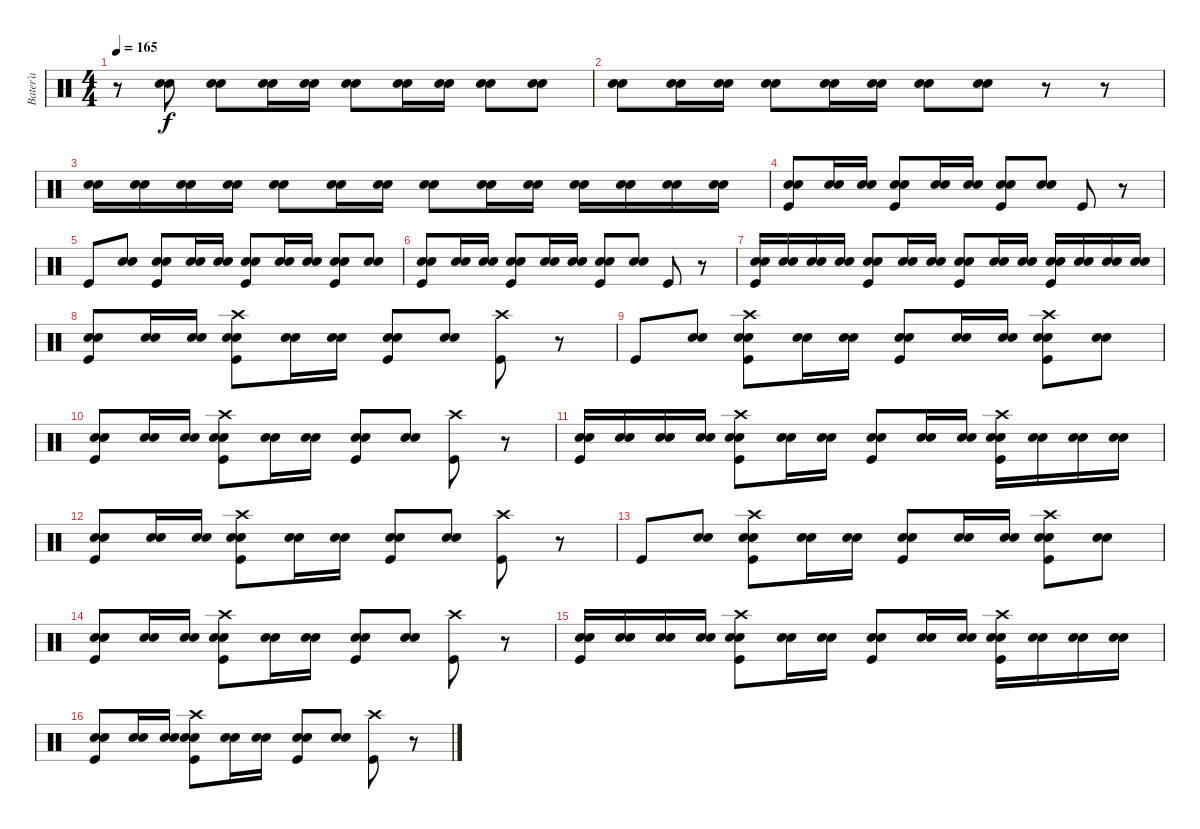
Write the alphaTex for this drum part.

\track ("Bater’a" "Bater’a") {instrument percussion}
\staff {score}
\articulation defaults
\ts (4 4)
\tempo 165
\clef neutral
\ks c
r.8{dy f} ("Snare (hit) 2" "Electric Snare (hit)").8 ("Snare (hit) 2" "Electric Snare (hit)").8 ("Snare (hit) 2" "Electric Snare (hit)").16 ("Snare (hit) 2" "Electric Snare (hit)").16 ("Snare (hit) 2" "Electric Snare (hit)").8 ("Snare (hit) 2" "Electric Snare (hit)").16 ("Snare (hit) 2" "Electric Snare (hit)").16 ("Snare (hit) 2" "Electric Snare (hit)").8 ("Snare (hit) 2" "Electric Snare (hit)").8 |
("Snare (hit) 2" "Electric Snare (hit)").8 ("Snare (hit) 2" "Electric Snare (hit)").16 ("Snare (hit) 2" "Electric Snare (hit)").16 ("Snare (hit) 2" "Electric Snare (hit)").8 ("Snare (hit) 2" "Electric Snare (hit)").16 ("Snare (hit) 2" "Electric Snare (hit)").16 ("Snare (hit) 2" "Electric Snare (hit)").8 ("Snare (hit) 2" "Electric Snare (hit)").8 r.8 r.8 |
("Snare (hit) 2" "Electric Snare (hit)").16 ("Snare (hit) 2" "Electric Snare (hit)").16 ("Snare (hit) 2" "Electric Snare (hit)").16 ("Snare (hit) 2" "Electric Snare (hit)").16 ("Snare (hit) 2" "Electric Snare (hit)").8 ("Snare (hit) 2" "Electric Snare (hit)").16 ("Snare (hit) 2" "Electric Snare (hit)").16 ("Snare (hit) 2" "Electric Snare (hit)").8 ("Snare (hit) 2" "Electric Snare (hit)").16 ("Snare (hit) 2" "Electric Snare (hit)").16 ("Snare (hit) 2" "Electric Snare (hit)").16 ("Snare (hit) 2" "Electric Snare (hit)").16 ("Snare (hit) 2" "Electric Snare (hit)").16 ("Snare (hit) 2" "Electric Snare (hit)").16 |
("Snare (hit) 2" "Electric Snare (hit)" "Kick (hit)").8 ("Snare (hit) 2" "Electric Snare (hit)").16 ("Snare (hit) 2" "Electric Snare (hit)").16 ("Snare (hit) 2" "Electric Snare (hit)" "Kick (hit)").8 ("Snare (hit) 2" "Electric Snare (hit)").16 ("Snare (hit) 2" "Electric Snare (hit)").16 ("Snare (hit) 2" "Electric Snare (hit)" "Kick (hit)").8 ("Snare (hit) 2" "Electric Snare (hit)").8 "Kick (hit)".8 r.8 |
"Kick (hit)".8 ("Snare (hit) 2" "Electric Snare (hit)").8 ("Snare (hit) 2" "Electric Snare (hit)" "Kick (hit)").8 ("Snare (hit) 2" "Electric Snare (hit)").16 ("Snare (hit) 2" "Electric Snare (hit)").16 ("Snare (hit) 2" "Electric Snare (hit)" "Kick (hit)").8 ("Snare (hit) 2" "Electric Snare (hit)").16 ("Snare (hit) 2" "Electric Snare (hit)").16 ("Snare (hit) 2" "Electric Snare (hit)" "Kick (hit)").8 ("Snare (hit) 2" "Electric Snare (hit)").8 |
("Snare (hit) 2" "Electric Snare (hit)" "Kick (hit)").8 ("Snare (hit) 2" "Electric Snare (hit)").16 ("Snare (hit) 2" "Electric Snare (hit)").16 ("Snare (hit) 2" "Electric Snare (hit)" "Kick (hit)").8 ("Snare (hit) 2" "Electric Snare (hit)").16 ("Snare (hit) 2" "Electric Snare (hit)").16 ("Snare (hit) 2" "Electric Snare (hit)" "Kick (hit)").8 ("Snare (hit) 2" "Electric Snare (hit)").8 "Kick (hit)".8 r.8 |
("Snare (hit) 2" "Electric Snare (hit)" "Kick (hit)").16 ("Snare (hit) 2" "Electric Snare (hit)").16 ("Snare (hit) 2" "Electric Snare (hit)").16 ("Snare (hit) 2" "Electric Snare (hit)").16 ("Snare (hit) 2" "Electric Snare (hit)" "Kick (hit)").8 ("Snare (hit) 2" "Electric Snare (hit)").16 ("Snare (hit) 2" "Electric Snare (hit)").16 ("Snare (hit) 2" "Electric Snare (hit)" "Kick (hit)").8 ("Snare (hit) 2" "Electric Snare (hit)").16 ("Snare (hit) 2" "Electric Snare (hit)").16 ("Snare (hit) 2" "Electric Snare (hit)" "Kick (hit)").16 ("Snare (hit) 2" "Electric Snare (hit)").16 ("Snare (hit) 2" "Electric Snare (hit)").16 ("Snare (hit) 2" "Electric Snare (hit)").16 |
("Snare (hit) 2" "Electric Snare (hit)" "Kick (hit)").8 ("Snare (hit) 2" "Electric Snare (hit)").16 ("Snare (hit) 2" "Electric Snare (hit)").16 ("Snare (hit) 2" "Electric Snare (hit)" "Kick (hit)" "Crash high (hit)").8 ("Snare (hit) 2" "Electric Snare (hit)").16 ("Snare (hit) 2" "Electric Snare (hit)").16 ("Snare (hit) 2" "Electric Snare (hit)" "Kick (hit)").8 ("Snare (hit) 2" "Electric Snare (hit)").8 ("Kick (hit)" "Crash high (hit)").8 r.8 |
"Kick (hit)".8 ("Snare (hit) 2" "Electric Snare (hit)").8 ("Snare (hit) 2" "Electric Snare (hit)" "Kick (hit)" "Crash high (hit)").8 ("Snare (hit) 2" "Electric Snare (hit)").16 ("Snare (hit) 2" "Electric Snare (hit)").16 ("Snare (hit) 2" "Electric Snare (hit)" "Kick (hit)").8 ("Snare (hit) 2" "Electric Snare (hit)").16 ("Snare (hit) 2" "Electric Snare (hit)").16 ("Snare (hit) 2" "Electric Snare (hit)" "Kick (hit)" "Crash high (hit)").8 ("Snare (hit) 2" "Electric Snare (hit)").8 |
("Snare (hit) 2" "Electric Snare (hit)" "Kick (hit)").8 ("Snare (hit) 2" "Electric Snare (hit)").16 ("Snare (hit) 2" "Electric Snare (hit)").16 ("Snare (hit) 2" "Electric Snare (hit)" "Kick (hit)" "Crash high (hit)").8 ("Snare (hit) 2" "Electric Snare (hit)").16 ("Snare (hit) 2" "Electric Snare (hit)").16 ("Snare (hit) 2" "Electric Snare (hit)" "Kick (hit)").8 ("Snare (hit) 2" "Electric Snare (hit)").8 ("Kick (hit)" "Crash high (hit)").8 r.8 |
("Snare (hit) 2" "Electric Snare (hit)" "Kick (hit)").16 ("Snare (hit) 2" "Electric Snare (hit)").16 ("Snare (hit) 2" "Electric Snare (hit)").16 ("Snare (hit) 2" "Electric Snare (hit)").16 ("Snare (hit) 2" "Electric Snare (hit)" "Kick (hit)" "Crash high (hit)").8 ("Snare (hit) 2" "Electric Snare (hit)").16 ("Snare (hit) 2" "Electric Snare (hit)").16 ("Snare (hit) 2" "Electric Snare (hit)" "Kick (hit)").8 ("Snare (hit) 2" "Electric Snare (hit)").16 ("Snare (hit) 2" "Electric Snare (hit)").16 ("Snare (hit) 2" "Electric Snare (hit)" "Kick (hit)" "Crash high (hit)").16 ("Snare (hit) 2" "Electric Snare (hit)").16 ("Snare (hit) 2" "Electric Snare (hit)").16 ("Snare (hit) 2" "Electric Snare (hit)").16 |
("Snare (hit) 2" "Electric Snare (hit)" "Kick (hit)").8 ("Snare (hit) 2" "Electric Snare (hit)").16 ("Snare (hit) 2" "Electric Snare (hit)").16 ("Snare (hit) 2" "Electric Snare (hit)" "Kick (hit)" "Crash high (hit)").8 ("Snare (hit) 2" "Electric Snare (hit)").16 ("Snare (hit) 2" "Electric Snare (hit)").16 ("Snare (hit) 2" "Electric Snare (hit)" "Kick (hit)").8 ("Snare (hit) 2" "Electric Snare (hit)").8 ("Kick (hit)" "Crash high (hit)").8 r.8 |
"Kick (hit)".8 ("Snare (hit) 2" "Electric Snare (hit)").8 ("Snare (hit) 2" "Electric Snare (hit)" "Kick (hit)" "Crash high (hit)").8 ("Snare (hit) 2" "Electric Snare (hit)").16 ("Snare (hit) 2" "Electric Snare (hit)").16 ("Snare (hit) 2" "Electric Snare (hit)" "Kick (hit)").8 ("Snare (hit) 2" "Electric Snare (hit)").16 ("Snare (hit) 2" "Electric Snare (hit)").16 ("Snare (hit) 2" "Electric Snare (hit)" "Kick (hit)" "Crash high (hit)").8 ("Snare (hit) 2" "Electric Snare (hit)").8 |
("Snare (hit) 2" "Electric Snare (hit)" "Kick (hit)").8 ("Snare (hit) 2" "Electric Snare (hit)").16 ("Snare (hit) 2" "Electric Snare (hit)").16 ("Snare (hit) 2" "Electric Snare (hit)" "Kick (hit)" "Crash high (hit)").8 ("Snare (hit) 2" "Electric Snare (hit)").16 ("Snare (hit) 2" "Electric Snare (hit)").16 ("Snare (hit) 2" "Electric Snare (hit)" "Kick (hit)").8 ("Snare (hit) 2" "Electric Snare (hit)").8 ("Kick (hit)" "Crash high (hit)").8 r.8 |
("Snare (hit) 2" "Electric Snare (hit)" "Kick (hit)").16 ("Snare (hit) 2" "Electric Snare (hit)").16 ("Snare (hit) 2" "Electric Snare (hit)").16 ("Snare (hit) 2" "Electric Snare (hit)").16 ("Snare (hit) 2" "Electric Snare (hit)" "Kick (hit)" "Crash high (hit)").8 ("Snare (hit) 2" "Electric Snare (hit)").16 ("Snare (hit) 2" "Electric Snare (hit)").16 ("Snare (hit) 2" "Electric Snare (hit)" "Kick (hit)").8 ("Snare (hit) 2" "Electric Snare (hit)").16 ("Snare (hit) 2" "Electric Snare (hit)").16 ("Snare (hit) 2" "Electric Snare (hit)" "Kick (hit)" "Crash high (hit)").16 ("Snare (hit) 2" "Electric Snare (hit)").16 ("Snare (hit) 2" "Electric Snare (hit)").16 ("Snare (hit) 2" "Electric Snare (hit)").16 |
("Snare (hit) 2" "Electric Snare (hit)" "Kick (hit)").8 ("Snare (hit) 2" "Electric Snare (hit)").16 ("Snare (hit) 2" "Electric Snare (hit)").16 ("Snare (hit) 2" "Electric Snare (hit)" "Kick (hit)" "Crash high (hit)").8 ("Snare (hit) 2" "Electric Snare (hit)").16 ("Snare (hit) 2" "Electric Snare (hit)").16 ("Snare (hit) 2" "Electric Snare (hit)" "Kick (hit)").8 ("Snare (hit) 2" "Electric Snare (hit)").8 ("Kick (hit)" "Crash high (hit)").8 r.8
